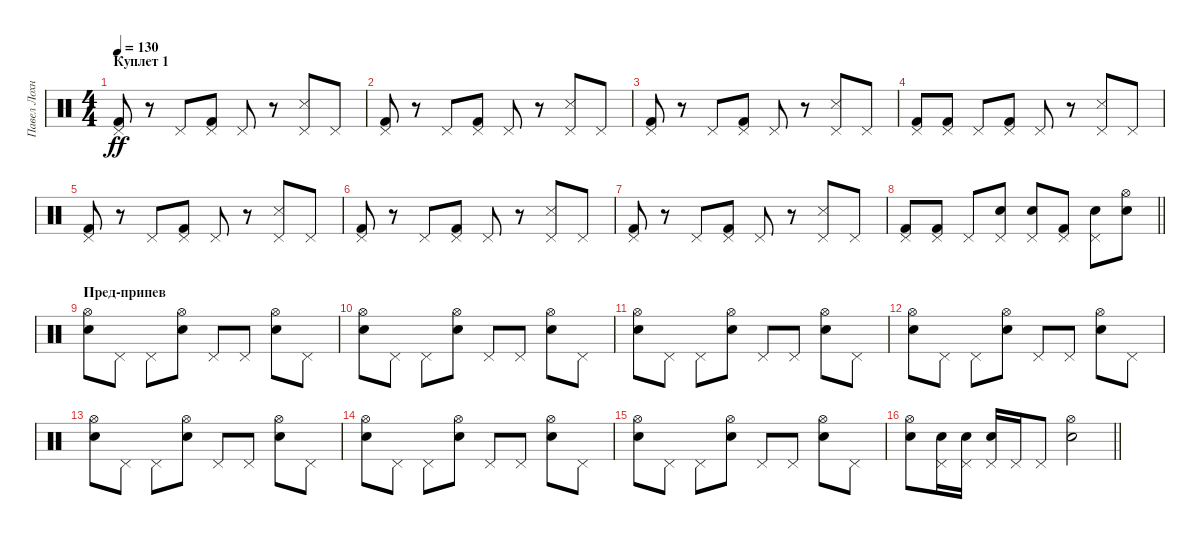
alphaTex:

\track ("Павел Лохнин" "Павел Лохн") {instrument percussion}
\staff {score}
\articulation defaults
\ts (4 4)
\section ("" "Куплет 1")
\tempo 130
\clef neutral
\ks c
("Pedal Hi-Hat (hit)" "Kick (hit) 2").8{dy ff} r.8 "Pedal Hi-Hat (hit)".8 ("Pedal Hi-Hat (hit)" "Kick (hit) 2").8 "Pedal Hi-Hat (hit)".8 r.8 ("Pedal Hi-Hat (hit)" "Snare (side stick) 3").8 "Pedal Hi-Hat (hit)".8 |
("Pedal Hi-Hat (hit)" "Kick (hit) 2").8 r.8 "Pedal Hi-Hat (hit)".8 ("Pedal Hi-Hat (hit)" "Kick (hit) 2").8 "Pedal Hi-Hat (hit)".8 r.8 ("Pedal Hi-Hat (hit)" "Snare (side stick) 3").8 "Pedal Hi-Hat (hit)".8 |
("Pedal Hi-Hat (hit)" "Kick (hit) 2").8 r.8 "Pedal Hi-Hat (hit)".8 ("Pedal Hi-Hat (hit)" "Kick (hit) 2").8 "Pedal Hi-Hat (hit)".8 r.8 ("Pedal Hi-Hat (hit)" "Snare (side stick) 3").8 "Pedal Hi-Hat (hit)".8 |
("Pedal Hi-Hat (hit)" "Kick (hit) 2").8 ("Pedal Hi-Hat (hit)" "Kick (hit) 2").8 "Pedal Hi-Hat (hit)".8 ("Pedal Hi-Hat (hit)" "Kick (hit) 2").8 "Pedal Hi-Hat (hit)".8 r.8 ("Pedal Hi-Hat (hit)" "Snare (side stick) 3").8 "Pedal Hi-Hat (hit)".8 |
("Pedal Hi-Hat (hit)" "Kick (hit) 2").8 r.8 "Pedal Hi-Hat (hit)".8 ("Pedal Hi-Hat (hit)" "Kick (hit) 2").8 "Pedal Hi-Hat (hit)".8 r.8 ("Pedal Hi-Hat (hit)" "Snare (side stick) 3").8 "Pedal Hi-Hat (hit)".8 |
("Pedal Hi-Hat (hit)" "Kick (hit) 2").8 r.8 "Pedal Hi-Hat (hit)".8 ("Pedal Hi-Hat (hit)" "Kick (hit) 2").8 "Pedal Hi-Hat (hit)".8 r.8 ("Pedal Hi-Hat (hit)" "Snare (side stick) 3").8 "Pedal Hi-Hat (hit)".8 |
("Pedal Hi-Hat (hit)" "Kick (hit) 2").8 r.8 "Pedal Hi-Hat (hit)".8 ("Pedal Hi-Hat (hit)" "Kick (hit) 2").8 "Pedal Hi-Hat (hit)".8 r.8 ("Pedal Hi-Hat (hit)" "Snare (side stick) 3").8 "Pedal Hi-Hat (hit)".8 |
\barLineRight lightlight
("Pedal Hi-Hat (hit)" "Kick (hit) 2").8 ("Pedal Hi-Hat (hit)" "Kick (hit) 2").8 "Pedal Hi-Hat (hit)".8 ("Pedal Hi-Hat (hit)" "Electric Snare (hit)").8 ("Pedal Hi-Hat (hit)" "Electric Snare (hit)").8 ("Pedal Hi-Hat (hit)" "Kick (hit) 2").8 ("Pedal Hi-Hat (hit)" "Electric Snare (hit)").8 ("Hi-Hat (open)" "Snare (hit) 2").8 |
\section ("" "Пред-припев")
("Hi-Hat (open)" "Electric Snare (hit)").8 "Pedal Hi-Hat (hit)".8 "Pedal Hi-Hat (hit)".8 ("Hi-Hat (open)" "Electric Snare (hit)").8 "Pedal Hi-Hat (hit)".8 "Pedal Hi-Hat (hit)".8 ("Hi-Hat (open)" "Electric Snare (hit)").8 "Pedal Hi-Hat (hit)".8 |
("Hi-Hat (open)" "Electric Snare (hit)").8 "Pedal Hi-Hat (hit)".8 "Pedal Hi-Hat (hit)".8 ("Hi-Hat (open)" "Electric Snare (hit)").8 "Pedal Hi-Hat (hit)".8 "Pedal Hi-Hat (hit)".8 ("Hi-Hat (open)" "Electric Snare (hit)").8 "Pedal Hi-Hat (hit)".8 |
("Hi-Hat (open)" "Electric Snare (hit)").8 "Pedal Hi-Hat (hit)".8 "Pedal Hi-Hat (hit)".8 ("Hi-Hat (open)" "Electric Snare (hit)").8 "Pedal Hi-Hat (hit)".8 "Pedal Hi-Hat (hit)".8 ("Hi-Hat (open)" "Electric Snare (hit)").8 "Pedal Hi-Hat (hit)".8 |
("Hi-Hat (open)" "Electric Snare (hit)").8 "Pedal Hi-Hat (hit)".8 "Pedal Hi-Hat (hit)".8 ("Hi-Hat (open)" "Electric Snare (hit)").8 "Pedal Hi-Hat (hit)".8 "Pedal Hi-Hat (hit)".8 ("Hi-Hat (open)" "Electric Snare (hit)").8 "Pedal Hi-Hat (hit)".8 |
("Hi-Hat (open)" "Electric Snare (hit)").8 "Pedal Hi-Hat (hit)".8 "Pedal Hi-Hat (hit)".8 ("Hi-Hat (open)" "Electric Snare (hit)").8 "Pedal Hi-Hat (hit)".8 "Pedal Hi-Hat (hit)".8 ("Hi-Hat (open)" "Electric Snare (hit)").8 "Pedal Hi-Hat (hit)".8 |
("Hi-Hat (open)" "Electric Snare (hit)").8 "Pedal Hi-Hat (hit)".8 "Pedal Hi-Hat (hit)".8 ("Hi-Hat (open)" "Electric Snare (hit)").8 "Pedal Hi-Hat (hit)".8 "Pedal Hi-Hat (hit)".8 ("Hi-Hat (open)" "Electric Snare (hit)").8 "Pedal Hi-Hat (hit)".8 |
("Hi-Hat (open)" "Electric Snare (hit)").8 "Pedal Hi-Hat (hit)".8 "Pedal Hi-Hat (hit)".8 ("Hi-Hat (open)" "Electric Snare (hit)").8 "Pedal Hi-Hat (hit)".8 "Pedal Hi-Hat (hit)".8 ("Hi-Hat (open)" "Electric Snare (hit)").8 "Pedal Hi-Hat (hit)".8 |
\barLineRight lightlight
("Hi-Hat (open)" "Electric Snare (hit)").8 ("Pedal Hi-Hat (hit)" "Electric Snare (hit)").16 ("Pedal Hi-Hat (hit)" "Electric Snare (hit)").16 ("Pedal Hi-Hat (hit)" "Electric Snare (hit)").16 "Pedal Hi-Hat (hit)".16 "Pedal Hi-Hat (hit)".8 ("Hi-Hat (open)" "Electric Snare (hit)").2
